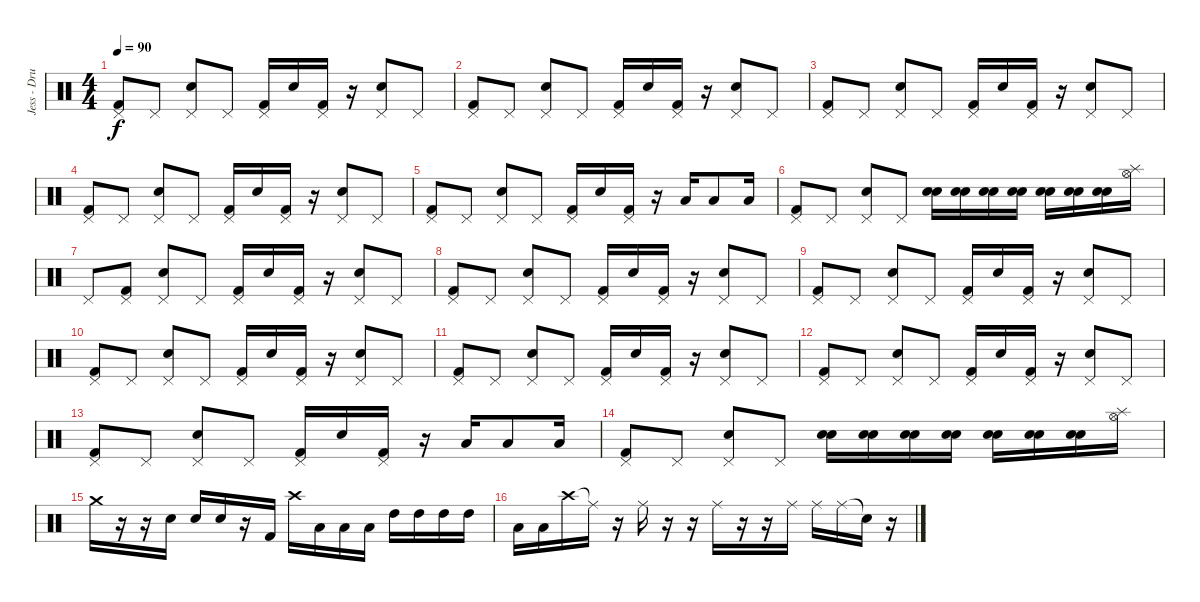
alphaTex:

\track ("Jess - Drums" "Jess - Dru") {instrument percussion}
\staff {score}
\articulation defaults
\ts (4 4)
\tempo 90
\clef neutral
\ks c
("Pedal Hi-Hat (hit)" "Kick (hit) 2").8{dy f} "Pedal Hi-Hat (hit)".8 ("Pedal Hi-Hat (hit)" "Electric Snare (hit)").8 "Pedal Hi-Hat (hit)".8 ("Pedal Hi-Hat (hit)" "Kick (hit) 2").16 "Electric Snare (hit)".16 ("Pedal Hi-Hat (hit)" "Kick (hit) 2").16 r.16 ("Pedal Hi-Hat (hit)" "Electric Snare (hit)").8 "Pedal Hi-Hat (hit)".8 |
("Pedal Hi-Hat (hit)" "Kick (hit) 2").8 "Pedal Hi-Hat (hit)".8 ("Pedal Hi-Hat (hit)" "Electric Snare (hit)").8 "Pedal Hi-Hat (hit)".8 ("Pedal Hi-Hat (hit)" "Kick (hit) 2").16 "Electric Snare (hit)".16 ("Pedal Hi-Hat (hit)" "Kick (hit) 2").16 r.16 ("Pedal Hi-Hat (hit)" "Electric Snare (hit)").8 "Pedal Hi-Hat (hit)".8 |
("Pedal Hi-Hat (hit)" "Kick (hit) 2").8 "Pedal Hi-Hat (hit)".8 ("Pedal Hi-Hat (hit)" "Electric Snare (hit)").8 "Pedal Hi-Hat (hit)".8 ("Pedal Hi-Hat (hit)" "Kick (hit) 2").16 "Electric Snare (hit)".16 ("Pedal Hi-Hat (hit)" "Kick (hit) 2").16 r.16 ("Pedal Hi-Hat (hit)" "Electric Snare (hit)").8 "Pedal Hi-Hat (hit)".8 |
("Pedal Hi-Hat (hit)" "Kick (hit) 2").8 "Pedal Hi-Hat (hit)".8 ("Pedal Hi-Hat (hit)" "Electric Snare (hit)").8 "Pedal Hi-Hat (hit)".8 ("Pedal Hi-Hat (hit)" "Kick (hit) 2").16 "Electric Snare (hit)".16 ("Pedal Hi-Hat (hit)" "Kick (hit) 2").16 r.16 ("Pedal Hi-Hat (hit)" "Electric Snare (hit)").8 "Pedal Hi-Hat (hit)".8 |
("Pedal Hi-Hat (hit)" "Kick (hit) 2").8 "Pedal Hi-Hat (hit)".8 ("Pedal Hi-Hat (hit)" "Electric Snare (hit)").8 "Pedal Hi-Hat (hit)".8 ("Pedal Hi-Hat (hit)" "Kick (hit) 2").16 "Electric Snare (hit)".16 ("Pedal Hi-Hat (hit)" "Kick (hit) 2").16 r.16 "Low Tom (hit)".16 "Low Tom (hit)".8 "Low Floor Tom (hit)".16 |
("Pedal Hi-Hat (hit)" "Kick (hit) 2").8 "Pedal Hi-Hat (hit)".8 ("Pedal Hi-Hat (hit)" "Electric Snare (hit)").8 "Pedal Hi-Hat (hit)".8 ("Snare (hit) 2" "Electric Snare (hit)").16 ("Snare (hit) 2" "Electric Snare (hit)").16 ("Snare (hit) 2" "Electric Snare (hit)").16 ("Snare (hit) 2" "Electric Snare (hit)").16 ("Snare (hit) 2" "Electric Snare (hit)").16 ("Snare (hit) 2" "Electric Snare (hit)").16 ("Snare (hit) 2" "Electric Snare (hit)").16 ("Splash (hit)" "Hi-Hat (open)").16 |
"Pedal Hi-Hat (hit)".8 ("Pedal Hi-Hat (hit)" "Kick (hit) 2").8 ("Pedal Hi-Hat (hit)" "Electric Snare (hit)").8 "Pedal Hi-Hat (hit)".8 ("Pedal Hi-Hat (hit)" "Kick (hit) 2").16 "Electric Snare (hit)".16 ("Pedal Hi-Hat (hit)" "Kick (hit) 2").16 r.16 ("Pedal Hi-Hat (hit)" "Electric Snare (hit)").8 "Pedal Hi-Hat (hit)".8 |
("Pedal Hi-Hat (hit)" "Kick (hit) 2").8 "Pedal Hi-Hat (hit)".8 ("Pedal Hi-Hat (hit)" "Electric Snare (hit)").8 "Pedal Hi-Hat (hit)".8 ("Pedal Hi-Hat (hit)" "Kick (hit) 2").16 "Electric Snare (hit)".16 ("Pedal Hi-Hat (hit)" "Kick (hit) 2").16 r.16 ("Pedal Hi-Hat (hit)" "Electric Snare (hit)").8 "Pedal Hi-Hat (hit)".8 |
("Pedal Hi-Hat (hit)" "Kick (hit) 2").8 "Pedal Hi-Hat (hit)".8 ("Pedal Hi-Hat (hit)" "Electric Snare (hit)").8 "Pedal Hi-Hat (hit)".8 ("Pedal Hi-Hat (hit)" "Kick (hit) 2").16 "Electric Snare (hit)".16 ("Pedal Hi-Hat (hit)" "Kick (hit) 2").16 r.16 ("Pedal Hi-Hat (hit)" "Electric Snare (hit)").8 "Pedal Hi-Hat (hit)".8 |
("Pedal Hi-Hat (hit)" "Kick (hit) 2").8 "Pedal Hi-Hat (hit)".8 ("Pedal Hi-Hat (hit)" "Electric Snare (hit)").8 "Pedal Hi-Hat (hit)".8 ("Pedal Hi-Hat (hit)" "Kick (hit) 2").16 "Electric Snare (hit)".16 ("Pedal Hi-Hat (hit)" "Kick (hit) 2").16 r.16 ("Pedal Hi-Hat (hit)" "Electric Snare (hit)").8 "Pedal Hi-Hat (hit)".8 |
("Pedal Hi-Hat (hit)" "Kick (hit) 2").8 "Pedal Hi-Hat (hit)".8 ("Pedal Hi-Hat (hit)" "Electric Snare (hit)").8 "Pedal Hi-Hat (hit)".8 ("Pedal Hi-Hat (hit)" "Kick (hit) 2").16 "Electric Snare (hit)".16 ("Pedal Hi-Hat (hit)" "Kick (hit) 2").16 r.16 ("Pedal Hi-Hat (hit)" "Electric Snare (hit)").8 "Pedal Hi-Hat (hit)".8 |
("Pedal Hi-Hat (hit)" "Kick (hit) 2").8 "Pedal Hi-Hat (hit)".8 ("Pedal Hi-Hat (hit)" "Electric Snare (hit)").8 "Pedal Hi-Hat (hit)".8 ("Pedal Hi-Hat (hit)" "Kick (hit) 2").16 "Electric Snare (hit)".16 ("Pedal Hi-Hat (hit)" "Kick (hit) 2").16 r.16 ("Pedal Hi-Hat (hit)" "Electric Snare (hit)").8 "Pedal Hi-Hat (hit)".8 |
("Pedal Hi-Hat (hit)" "Kick (hit) 2").8 "Pedal Hi-Hat (hit)".8 ("Pedal Hi-Hat (hit)" "Electric Snare (hit)").8 "Pedal Hi-Hat (hit)".8 ("Pedal Hi-Hat (hit)" "Kick (hit) 2").16 "Electric Snare (hit)".16 ("Pedal Hi-Hat (hit)" "Kick (hit) 2").16 r.16 "Low Tom (hit)".16 "Low Tom (hit)".8 "Low Floor Tom (hit)".16 |
("Pedal Hi-Hat (hit)" "Kick (hit) 2").8 "Pedal Hi-Hat (hit)".8 ("Pedal Hi-Hat (hit)" "Electric Snare (hit)").8 "Pedal Hi-Hat (hit)".8 ("Snare (hit) 2" "Electric Snare (hit)").16 ("Snare (hit) 2" "Electric Snare (hit)").16 ("Snare (hit) 2" "Electric Snare (hit)").16 ("Snare (hit) 2" "Electric Snare (hit)").16 ("Snare (hit) 2" "Electric Snare (hit)").16 ("Snare (hit) 2" "Electric Snare (hit)").16 ("Snare (hit) 2" "Electric Snare (hit)").16 ("Splash (hit)" "Hi-Hat (open)").16 |
"Crash medium (hit)".16 r.16 r.16 "Electric Snare (hit)".16 "Electric Snare (hit)".16 "Electric Snare (hit)".16 r.16 "Kick (hit) 2".16 "Crash high (hit)".16 "Low Tom (hit)".16 "Low Tom (hit)".16 "Low Tom (hit)".16 "High Tom (hit)".16 "High Tom (hit)".16 "High Tom (hit)".16 "High Tom (hit)".16 |
"Low Tom (hit)".16 "Low Tom (hit)".16 "Crash high (hit)".16 "Ride (middle)"{t}.16 r.16 "Ride (middle)".16 r.16 r.16 "Ride (middle)".16 r.16 r.16 "Ride (middle)".16 "Ride (middle)".16 "Ride (middle)".16 "Snare (hit)"{t}.16 r.16
